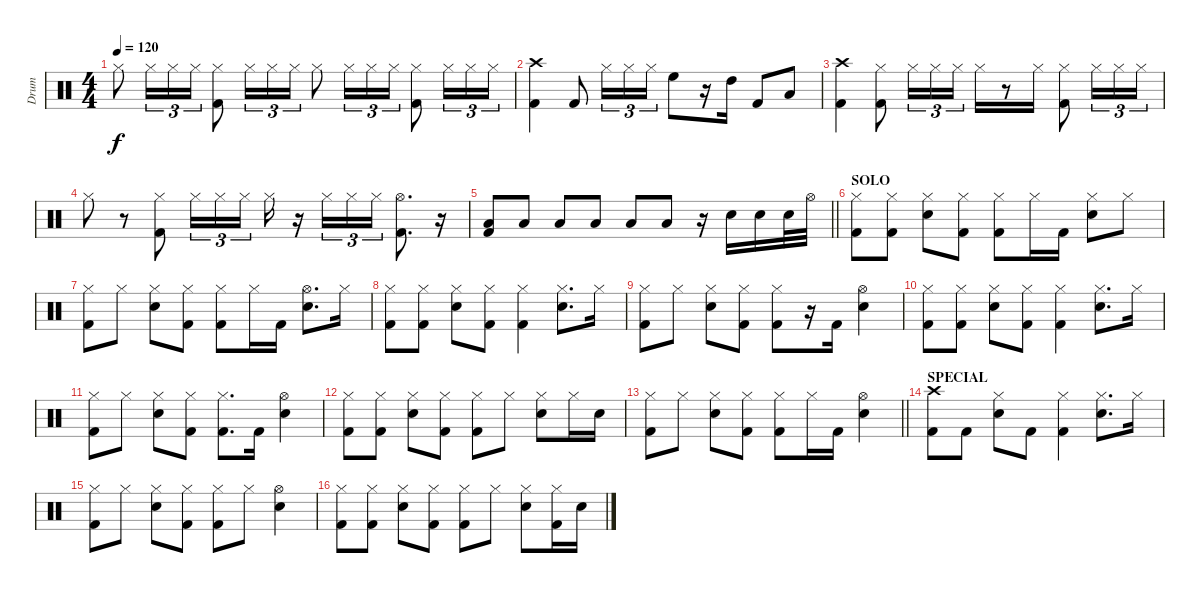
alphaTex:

\track ("Drum" "Drum") {instrument percussion}
\staff {score}
\articulation defaults
\ts (4 4)
\tempo 120
\clef neutral
\ks c "Hi-Hat (closed)".8{dy f} "Hi-Hat (closed)".16{tu (3 2)} "Hi-Hat (closed)".16{tu (3 2)} "Hi-Hat (closed)".16{tu (3 2)}
("Kick (hit) 2" "Hi-Hat (closed)").8 "Hi-Hat (closed)".16{tu (3 2)} "Hi-Hat (closed)".16{tu (3 2)} "Hi-Hat (closed)".16{tu (3 2)} "Hi-Hat (closed)".8 "Hi-Hat (closed)".16{tu (3 2)} "Hi-Hat (closed)".16{tu (3 2)} "Hi-Hat (closed)".16{tu (3 2)} ("Kick (hit) 2" "Hi-Hat (closed)").8 "Hi-Hat (closed)".16{tu (3 2)} "Hi-Hat (closed)".16{tu (3 2)} "Hi-Hat (closed)".16{tu (3 2)} |
("Kick (hit) 2" "Crash high (hit)").4 "Kick (hit) 2".8 "Hi-Hat (closed)".16{tu (3 2)} "Hi-Hat (closed)".16{tu (3 2)} "Hi-Hat (closed)".16{tu (3 2)} "High Floor Tom (hit)".8 r.16 "High Tom (hit)".16 "Kick (hit) 2".8 "Low Tom (hit)".8 |
("Kick (hit) 2" "Crash high (hit)").4 ("Kick (hit) 2" "Hi-Hat (closed)").8 "Hi-Hat (closed)".16{tu (3 2)} "Hi-Hat (closed)".16{tu (3 2)} "Hi-Hat (closed)".16{tu (3 2)} "Hi-Hat (closed)".16 r.8 "Hi-Hat (closed)".16 ("Kick (hit) 2" "Hi-Hat (closed)").8 "Hi-Hat (closed)".16{tu (3 2)} "Hi-Hat (closed)".16{tu (3 2)} "Hi-Hat (closed)".16{tu (3 2)} |
"Hi-Hat (closed)".8 r.8 ("Kick (hit) 2" "Hi-Hat (closed)").8 "Hi-Hat (closed)".16{tu (3 2)} "Hi-Hat (closed)".16{tu (3 2)} "Hi-Hat (closed)".16{tu (3 2)} "Hi-Hat (closed)".16 r.16 "Hi-Hat (closed)".16{tu (3 2)} "Hi-Hat (closed)".16{tu (3 2)} "Hi-Hat (closed)".16{tu (3 2)} ("Kick (hit) 2" "Hi-Hat (open)").8{d} r.16 |
\barLineRight lightlight
("Kick (hit) 2" "Low Tom (hit)").8 "Low Tom (hit)".8 "Low Tom (hit)".8 "Low Tom (hit)".8 "Low Tom (hit)".8 "Low Tom (hit)".8 r.16 "Snare (hit) 2".16 "Snare (hit) 2".16 "Snare (hit) 2".32 "Hi-Hat (open)".32 |
\section ("" "SOLO")
("Hi-Hat (closed)" "Kick (hit) 2").8 ("Kick (hit) 2" "Hi-Hat (closed)").8 ("Snare (hit) 2" "Hi-Hat (closed)").8 ("Kick (hit) 2" "Hi-Hat (closed)").8 ("Kick (hit) 2" "Hi-Hat (closed)").8 "Hi-Hat (closed)".16 "Kick (hit) 2".16 ("Snare (hit) 2" "Hi-Hat (closed)").8 "Hi-Hat (closed)".8 |
("Kick (hit) 2" "Hi-Hat (closed)").8 "Hi-Hat (closed)".8 ("Snare (hit) 2" "Hi-Hat (closed)").8 ("Kick (hit) 2" "Hi-Hat (closed)").8 ("Kick (hit) 2" "Hi-Hat (closed)").8 "Hi-Hat (closed)".16 "Kick (hit) 2".16 ("Snare (hit) 2" "Hi-Hat (open)").8{d} "Hi-Hat (closed)".16 |
("Kick (hit) 2" "Hi-Hat (closed)").8 ("Kick (hit) 2" "Hi-Hat (closed)").8 ("Snare (hit) 2" "Hi-Hat (closed)").8 ("Kick (hit) 2" "Hi-Hat (closed)").8 ("Kick (hit) 2" "Hi-Hat (closed)").4 ("Snare (hit) 2" "Hi-Hat (closed)").8{d} "Hi-Hat (closed)".16 |
("Kick (hit) 2" "Hi-Hat (closed)").8 "Hi-Hat (closed)".8 ("Snare (hit) 2" "Hi-Hat (closed)").8 ("Kick (hit) 2" "Hi-Hat (closed)").8 ("Kick (hit) 2" "Hi-Hat (closed)").8 r.16 "Kick (hit) 2".16 ("Snare (hit) 2" "Hi-Hat (open)").4 |
("Kick (hit) 2" "Hi-Hat (closed)").8 ("Kick (hit) 2" "Hi-Hat (closed)").8 ("Snare (hit) 2" "Hi-Hat (closed)").8 ("Kick (hit) 2" "Hi-Hat (closed)").8 ("Kick (hit) 2" "Hi-Hat (closed)").4 ("Snare (hit) 2" "Hi-Hat (closed)").8{d} "Hi-Hat (closed)".16 |
("Kick (hit) 2" "Hi-Hat (closed)").8 "Hi-Hat (closed)".8 ("Snare (hit) 2" "Hi-Hat (closed)").8 ("Kick (hit) 2" "Hi-Hat (closed)").8 ("Kick (hit) 2" "Hi-Hat (closed)").8{d} "Kick (hit) 2".16 ("Snare (hit) 2" "Hi-Hat (open)").4 |
("Kick (hit) 2" "Hi-Hat (closed)").8 ("Kick (hit) 2" "Hi-Hat (closed)").8 ("Snare (hit) 2" "Hi-Hat (closed)").8 ("Kick (hit) 2" "Hi-Hat (closed)").8 ("Kick (hit) 2" "Hi-Hat (closed)").8 "Hi-Hat (closed)".8 ("Snare (hit) 2" "Hi-Hat (closed)").8 "Hi-Hat (closed)".16 "Snare (hit) 2".16 |
\barLineRight lightlight
("Kick (hit) 2" "Hi-Hat (closed)").8 "Hi-Hat (closed)".8 ("Snare (hit) 2" "Hi-Hat (closed)").8 ("Kick (hit) 2" "Hi-Hat (closed)").8 ("Kick (hit) 2" "Hi-Hat (closed)").8 "Hi-Hat (closed)".16 "Kick (hit) 2".16 ("Snare (hit) 2" "Hi-Hat (open)").4 |
\section ("" "SPECIAL")
("Crash high (hit)" "Kick (hit) 2").8 "Kick (hit) 2".8 ("Snare (hit) 2" "Hi-Hat (closed)").8 "Kick (hit) 2".8 ("Kick (hit) 2" "Hi-Hat (closed)").4 ("Hi-Hat (closed)" "Snare (hit) 2").8{d} "Hi-Hat (closed)".16 |
("Kick (hit) 2" "Hi-Hat (closed)").8 "Hi-Hat (closed)".8 ("Snare (hit) 2" "Hi-Hat (closed)").8 ("Kick (hit) 2" "Hi-Hat (closed)").8 ("Kick (hit) 2" "Hi-Hat (closed)").8 "Hi-Hat (closed)".8 ("Snare (hit) 2" "Hi-Hat (open)").4 |
("Kick (hit) 2" "Hi-Hat (closed)").8 ("Kick (hit) 2" "Hi-Hat (closed)").8 ("Snare (hit) 2" "Hi-Hat (closed)").8 ("Kick (hit) 2" "Hi-Hat (closed)").8 ("Kick (hit) 2" "Hi-Hat (closed)").8 "Hi-Hat (closed)".8 ("Snare (hit) 2" "Hi-Hat (closed)").8 ("Kick (hit) 2" "Hi-Hat (closed)").16 "Snare (hit) 2".16
